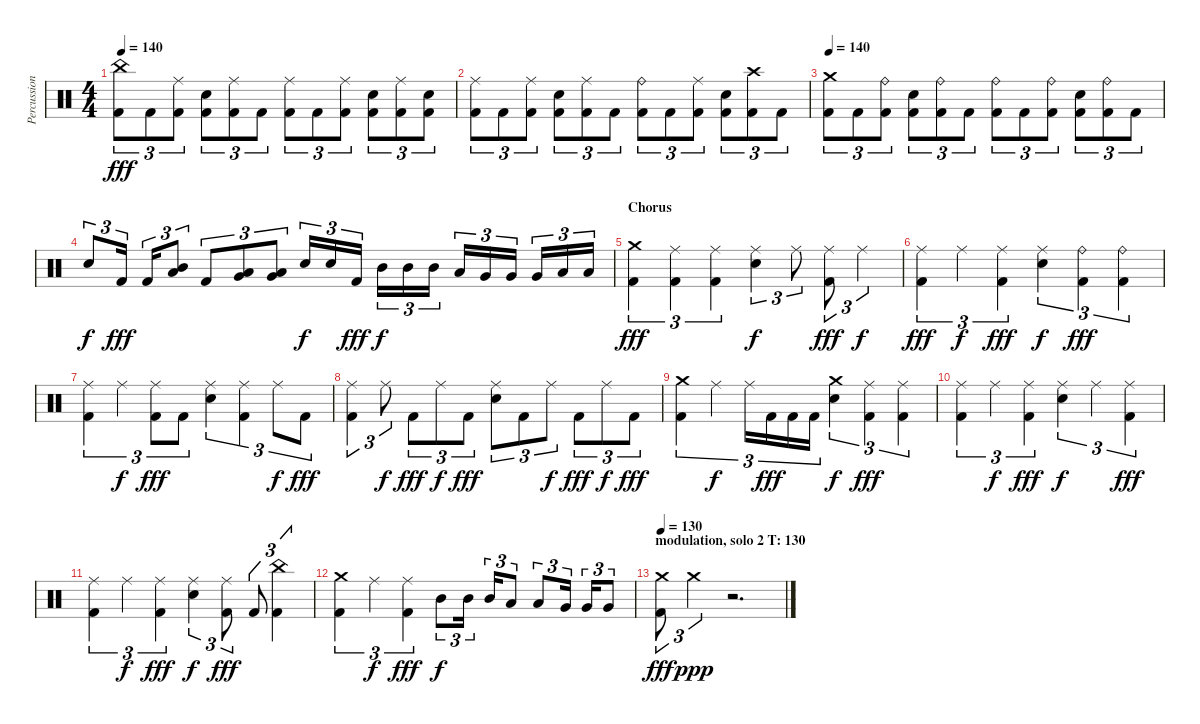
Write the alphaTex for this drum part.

\track ("Percussion" "Percussion") {instrument percussion}
\staff {score}
\articulation defaults
\ts (4 4)
\tempo 140
\clef neutral
\ks c
("China (hit)" "Kick (hit) 2").8{tu (3 2) dy fff} "Kick (hit) 2".8{tu (3 2)} ("Ride (middle)" "Kick (hit) 2").8{tu (3 2)} ("Electric Snare (hit)" "Kick (hit) 2").8{tu (3 2)} ("Ride (middle)" "Kick (hit) 2").8{tu (3 2)} "Kick (hit) 2".8{tu (3 2)} ("Ride (middle)" "Kick (hit) 2").8{tu (3 2)} "Kick (hit) 2".8{tu (3 2)} ("Ride (middle)" "Kick (hit) 2").8{tu (3 2)} ("Electric Snare (hit)" "Kick (hit) 2").8{tu (3 2)} ("Ride (middle)" "Kick (hit) 2").8{tu (3 2)} ("Electric Snare (hit)" "Kick (hit) 2").8{tu (3 2)} |
("Ride (middle)" "Kick (hit) 2").8{tu (3 2)} "Kick (hit) 2".8{tu (3 2)} ("Ride (middle)" "Kick (hit) 2").8{tu (3 2)} ("Electric Snare (hit)" "Kick (hit) 2").8{tu (3 2)} ("Ride (middle)" "Kick (hit) 2").8{tu (3 2)} "Kick (hit) 2".8{tu (3 2)} ("Ride (bell)" "Kick (hit) 2").8{tu (3 2)} "Kick (hit) 2".8{tu (3 2)} ("Ride (middle)" "Kick (hit) 2").8{tu (3 2)} ("Electric Snare (hit)" "Kick (hit) 2").8{tu (3 2)} ("Crash high (hit)" "Kick (hit) 2").8{tu (3 2)} "Kick (hit) 2".8{tu (3 2)} |
\tempo 140
("Crash medium (hit)" "Kick (hit) 2").8{tu (3 2)} "Kick (hit) 2".8{tu (3 2)} ("Ride (bell)" "Kick (hit) 2").8{tu (3 2)} ("Electric Snare (hit)" "Kick (hit) 2").8{tu (3 2)} ("Ride (bell)" "Kick (hit) 2").8{tu (3 2)} "Kick (hit) 2".8{tu (3 2)} ("Ride (bell)" "Kick (hit) 2").8{tu (3 2)} "Kick (hit) 2".8{tu (3 2)} ("Ride (bell)" "Kick (hit) 2").8{tu (3 2)} ("Electric Snare (hit)" "Kick (hit) 2").8{tu (3 2)} ("Ride (bell)" "Kick (hit) 2").8{tu (3 2)} "Kick (hit) 2".8{tu (3 2)} |
"Electric Snare (hit)".8{tu (3 2) dy f} "Kick (hit) 2".16{tu (3 2) dy fff} "Kick (hit) 2".16{tu (3 2)} ("Mid Tom (hit)" "Low Tom (hit)").8{tu (3 2)} "Kick (hit) 2".8{tu (3 2)} ("Very Low Tom (hit)" "Low Tom (hit)").8{tu (3 2)} ("Very Low Tom (hit)" "Low Tom (hit)").8{tu (3 2)} "Electric Snare (hit)".16{tu (3 2) dy f} "Electric Snare (hit)".16{tu (3 2)} "Kick (hit) 2".16{tu (3 2) dy fff} "Mid Tom (hit)".16{tu (3 2) dy f} "Mid Tom (hit)".16{tu (3 2)} "Mid Tom (hit)".16{tu (3 2)} "Low Tom (hit)".16{tu (3 2)} "Very Low Tom (hit)".16{tu (3 2)} "Very Low Tom (hit)".16{tu (3 2)} "Very Low Tom (hit)".16{tu (3 2)} "Low Floor Tom (hit)".16{tu (3 2)} "Low Floor Tom (hit)".16{tu (3 2)} |
\section ("" "Chorus")
("Crash medium (hit)" "Kick (hit) 2").4{tu (3 2) dy fff} ("Ride (middle)" "Kick (hit) 2").4{tu (3 2)} ("Ride (middle)" "Kick (hit) 2").4{tu (3 2)} ("Ride (middle)" "Electric Snare (hit)").4{tu (3 2) dy f} "Ride (middle)".8{tu (3 2)} ("Ride (middle)" "Kick (hit) 2").8{tu (3 2) dy fff} "Ride (middle)".4{tu (3 2) dy f} |
("Ride (middle)" "Kick (hit) 2").4{tu (3 2) dy fff} "Ride (middle)".4{tu (3 2) dy f} ("Ride (middle)" "Kick (hit) 2").4{tu (3 2) dy fff} ("Ride (middle)" "Electric Snare (hit)").4{tu (3 2) dy f} ("Ride (bell)" "Kick (hit) 2").4{tu (3 2) dy fff} ("Ride (bell)" "Kick (hit) 2").4{tu (3 2)} |
("Ride (middle)" "Kick (hit) 2").4{tu (3 2)} "Ride (middle)".4{tu (3 2) dy f} ("Ride (middle)" "Kick (hit) 2").8{tu (3 2) dy fff} "Kick (hit) 2".8{tu (3 2)} ("Ride (middle)" "Electric Snare (hit)").4{tu (3 2)} ("Ride (middle)" "Kick (hit) 2").4{tu (3 2)} "Ride (middle)".8{tu (3 2) dy f} "Kick (hit) 2".8{tu (3 2) dy fff} |
("Ride (middle)" "Kick (hit) 2").4{tu (3 2)} "Ride (middle)".8{tu (3 2) dy f} "Kick (hit) 2".8{tu (3 2) dy fff} "Ride (middle)".8{tu (3 2) dy f} "Kick (hit) 2".8{tu (3 2) dy fff} ("Ride (middle)" "Electric Snare (hit)").8{tu (3 2)} "Kick (hit) 2".8{tu (3 2)} "Ride (middle)".8{tu (3 2) dy f} "Kick (hit) 2".8{tu (3 2) dy fff} "Ride (middle)".8{tu (3 2) dy f} "Kick (hit) 2".8{tu (3 2) dy fff} |
("Crash medium (hit)" "Kick (hit) 2").4{tu (3 2)} "Ride (middle)".4{tu (3 2) dy f} "Ride (middle)".16{tu (3 2)} "Kick (hit) 2".16{tu (3 2) dy fff} "Kick (hit) 2".16{tu (3 2)} "Kick (hit) 2".16{tu (3 2)} ("Crash medium (hit)" "Electric Snare (hit)").4{tu (3 2) dy f} ("Ride (middle)" "Kick (hit) 2").4{tu (3 2) dy fff} ("Ride (middle)" "Kick (hit) 2").4{tu (3 2)} |
("Ride (middle)" "Kick (hit) 2").4{tu (3 2)} "Ride (middle)".4{tu (3 2) dy f} ("Ride (middle)" "Kick (hit) 2").4{tu (3 2) dy fff} ("Ride (middle)" "Electric Snare (hit)").4{tu (3 2) dy f} "Ride (middle)".4{tu (3 2)} ("Ride (middle)" "Kick (hit) 2").4{tu (3 2) dy fff} |
("Ride (middle)" "Kick (hit) 2").4{tu (3 2)} "Ride (middle)".4{tu (3 2) dy f} ("Ride (middle)" "Kick (hit) 2").4{tu (3 2) dy fff} ("Ride (middle)" "Electric Snare (hit)").4{tu (3 2) dy f} ("Ride (middle)" "Kick (hit) 2").8{tu (3 2) dy fff} "Kick (hit) 2".8{tu (3 2)} ("China (hit)" "Kick (hit) 2").4{tu (3 2)} |
("Crash medium (hit)" "Kick (hit) 2").4{tu (3 2)} "Ride (middle)".4{tu (3 2) dy f} ("Ride (middle)" "Kick (hit) 2").4{tu (3 2) dy fff} "Mid Tom (hit)".8{tu (3 2) dy f} "Mid Tom (hit)".16{tu (3 2)} "Mid Tom (hit)".16{tu (3 2)} "Low Tom (hit)".8{tu (3 2)} "Low Tom (hit)".8{tu (3 2)} "Very Low Tom (hit)".16{tu (3 2)} "Very Low Tom (hit)".16{tu (3 2)} "Very Low Tom (hit)".8{tu (3 2)} |
\section ("" "modulation, solo 2 T: 130")
\tempo 130
("Crash medium (hit)" "Kick (hit) 2").8{tu (3 2) dy fff} "Crash medium (hit)".4{tu (3 2) dy ppp} r.2{d}
